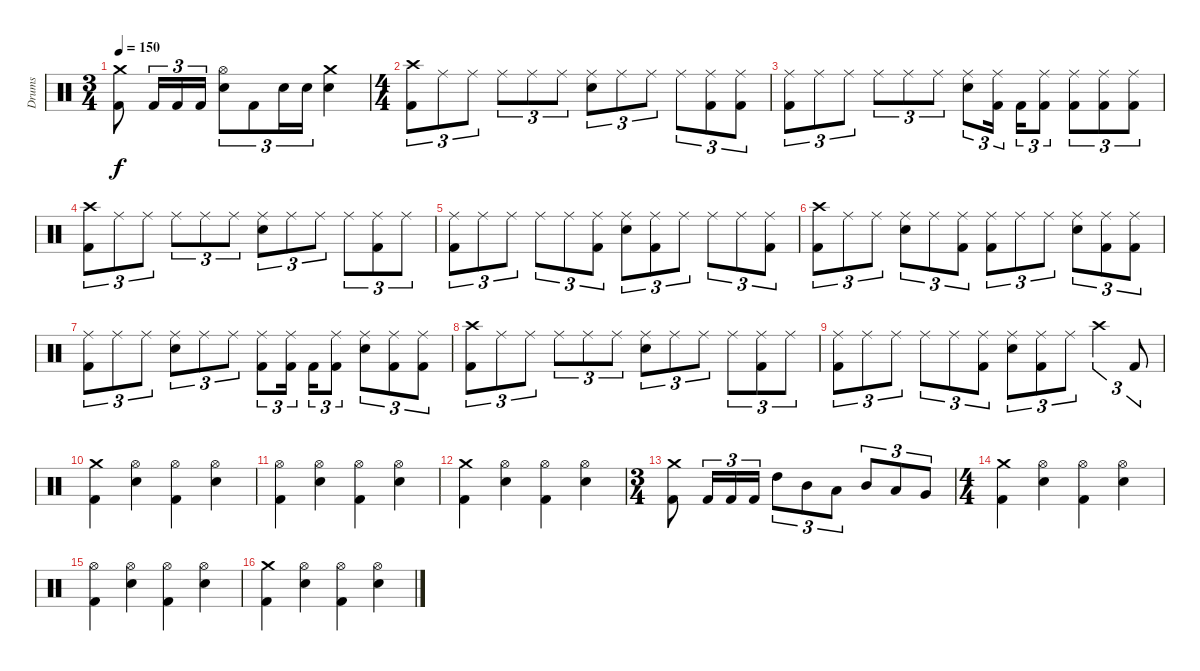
\track ("Drums" "Drums") {instrument percussion}
\staff {score}
\articulation defaults
\ts (3 4)
\tempo 150
\clef neutral
\ks c
("Kick (hit) 2" "Crash medium (hit)").8{dy f} "Kick (hit) 2".16{tu (3 2)} "Kick (hit) 2".16{tu (3 2)} "Kick (hit) 2".16{tu (3 2)} ("Electric Snare (hit)" "Hi-Hat (open)").8{tu (3 2)} "Kick (hit) 2".8{tu (3 2)} "Electric Snare (hit)".16{tu (3 2)} "Electric Snare (hit)".16{tu (3 2)} ("Electric Snare (hit)" "Crash medium (hit)").4 |
\ts (4 4)
("Kick (hit) 2" "Crash high (hit)").8{tu (3 2)} "Ride (middle)".8{tu (3 2)} "Ride (middle)".8{tu (3 2)} "Ride (middle)".8{tu (3 2)} "Ride (middle)".8{tu (3 2)} "Ride (middle)".8{tu (3 2)} ("Electric Snare (hit)" "Ride (middle)").8{tu (3 2)} "Ride (middle)".8{tu (3 2)} "Ride (middle)".8{tu (3 2)} "Ride (middle)".8{tu (3 2)} ("Kick (hit) 2" "Ride (middle)").8{tu (3 2)} ("Kick (hit) 2" "Ride (middle)").8{tu (3 2)} |
("Kick (hit) 2" "Ride (middle)").8{tu (3 2)} "Ride (middle)".8{tu (3 2)} "Ride (middle)".8{tu (3 2)} "Ride (middle)".8{tu (3 2)} "Ride (middle)".8{tu (3 2)} "Ride (middle)".8{tu (3 2)} ("Electric Snare (hit)" "Ride (middle)").8{tu (3 2)} ("Kick (hit) 2" "Ride (middle)").16{tu (3 2)} "Kick (hit) 2".16{tu (3 2)} ("Kick (hit) 2" "Ride (middle)").8{tu (3 2)} ("Kick (hit) 2" "Ride (middle)").8{tu (3 2)} ("Kick (hit) 2" "Ride (middle)").8{tu (3 2)} ("Kick (hit) 2" "Ride (middle)").8{tu (3 2)} |
("Kick (hit) 2" "Crash high (hit)").8{tu (3 2)} "Ride (middle)".8{tu (3 2)} "Ride (middle)".8{tu (3 2)} "Ride (middle)".8{tu (3 2)} "Ride (middle)".8{tu (3 2)} "Ride (middle)".8{tu (3 2)} ("Electric Snare (hit)" "Ride (middle)").8{tu (3 2)} "Ride (middle)".8{tu (3 2)} "Ride (middle)".8{tu (3 2)} "Ride (middle)".8{tu (3 2)} ("Kick (hit) 2" "Ride (middle)").8{tu (3 2)} "Ride (middle)".8{tu (3 2)} |
("Kick (hit) 2" "Ride (middle)").8{tu (3 2)} "Ride (middle)".8{tu (3 2)} "Ride (middle)".8{tu (3 2)} "Ride (middle)".8{tu (3 2)} "Ride (middle)".8{tu (3 2)} ("Kick (hit) 2" "Ride (middle)").8{tu (3 2)} ("Electric Snare (hit)" "Ride (middle)").8{tu (3 2)} ("Kick (hit) 2" "Ride (middle)").8{tu (3 2)} "Ride (middle)".8{tu (3 2)} "Ride (middle)".8{tu (3 2)} "Ride (middle)".8{tu (3 2)} ("Kick (hit) 2" "Ride (middle)").8{tu (3 2)} |
("Kick (hit) 2" "Crash high (hit)").8{tu (3 2)} "Ride (middle)".8{tu (3 2)} "Ride (middle)".8{tu (3 2)} ("Electric Snare (hit)" "Ride (middle)").8{tu (3 2)} "Ride (middle)".8{tu (3 2)} ("Kick (hit) 2" "Ride (middle)").8{tu (3 2)} ("Kick (hit) 2" "Ride (middle)").8{tu (3 2)} "Ride (middle)".8{tu (3 2)} "Ride (middle)".8{tu (3 2)} ("Electric Snare (hit)" "Ride (middle)").8{tu (3 2)} ("Kick (hit) 2" "Ride (middle)").8{tu (3 2)} ("Kick (hit) 2" "Ride (middle)").8{tu (3 2)} |
("Kick (hit) 2" "Ride (middle)").8{tu (3 2)} "Ride (middle)".8{tu (3 2)} "Ride (middle)".8{tu (3 2)} ("Electric Snare (hit)" "Ride (middle)").8{tu (3 2)} "Ride (middle)".8{tu (3 2)} "Ride (middle)".8{tu (3 2)} ("Kick (hit) 2" "Ride (middle)").8{tu (3 2)} ("Kick (hit) 2" "Ride (middle)").16{tu (3 2)} "Kick (hit) 2".16{tu (3 2)} ("Kick (hit) 2" "Ride (middle)").8{tu (3 2)} ("Electric Snare (hit)" "Ride (middle)").8{tu (3 2)} ("Kick (hit) 2" "Ride (middle)").8{tu (3 2)} ("Kick (hit) 2" "Ride (middle)").8{tu (3 2)} |
("Kick (hit) 2" "Crash high (hit)").8{tu (3 2)} "Ride (middle)".8{tu (3 2)} "Ride (middle)".8{tu (3 2)} "Ride (middle)".8{tu (3 2)} "Ride (middle)".8{tu (3 2)} "Ride (middle)".8{tu (3 2)} ("Electric Snare (hit)" "Ride (middle)").8{tu (3 2)} "Ride (middle)".8{tu (3 2)} "Ride (middle)".8{tu (3 2)} "Ride (middle)".8{tu (3 2)} ("Kick (hit) 2" "Ride (middle)").8{tu (3 2)} "Ride (middle)".8{tu (3 2)} |
("Kick (hit) 2" "Ride (middle)").8{tu (3 2)} "Ride (middle)".8{tu (3 2)} "Ride (middle)".8{tu (3 2)} "Ride (middle)".8{tu (3 2)} "Ride (middle)".8{tu (3 2)} ("Kick (hit) 2" "Ride (middle)").8{tu (3 2)} ("Electric Snare (hit)" "Ride (middle)").8{tu (3 2)} ("Kick (hit) 2" "Ride (middle)").8{tu (3 2)} "Ride (middle)".8{tu (3 2)} "Crash high (hit)".4{tu (3 2)} "Kick (hit) 2".8{tu (3 2)} |
("Kick (hit) 2" "Crash medium (hit)").4 ("Electric Snare (hit)" "Hi-Hat (open)").4 ("Kick (hit) 2" "Hi-Hat (open)").4 ("Electric Snare (hit)" "Hi-Hat (open)").4 |
("Kick (hit) 2" "Hi-Hat (open)").4 ("Electric Snare (hit)" "Hi-Hat (open)").4 ("Kick (hit) 2" "Hi-Hat (open)").4 ("Electric Snare (hit)" "Hi-Hat (open)").4 |
("Kick (hit) 2" "Crash medium (hit)").4 ("Electric Snare (hit)" "Hi-Hat (open)").4 ("Kick (hit) 2" "Hi-Hat (open)").4 ("Electric Snare (hit)" "Hi-Hat (open)").4 |
\ts (3 4)
("Kick (hit) 2" "Crash medium (hit)").8 "Kick (hit) 2".16{tu (3 2)} "Kick (hit) 2".16{tu (3 2)} "Kick (hit) 2".16{tu (3 2)} "High Tom (hit)".8{tu (3 2)} "Mid Tom (hit)".8{tu (3 2)} "Low Tom (hit)".8{tu (3 2)} "Mid Tom (hit)".8{tu (3 2)} "Low Tom (hit)".8{tu (3 2)} "Very Low Tom (hit)".8{tu (3 2)} |
\ts (4 4)
("Kick (hit) 2" "Crash medium (hit)").4 ("Electric Snare (hit)" "Hi-Hat (open)").4 ("Kick (hit) 2" "Hi-Hat (open)").4 ("Electric Snare (hit)" "Hi-Hat (open)").4 |
("Kick (hit) 2" "Hi-Hat (open)").4 ("Electric Snare (hit)" "Hi-Hat (open)").4 ("Kick (hit) 2" "Hi-Hat (open)").4 ("Electric Snare (hit)" "Hi-Hat (open)").4 |
("Kick (hit) 2" "Crash medium (hit)").4 ("Electric Snare (hit)" "Hi-Hat (open)").4 ("Kick (hit) 2" "Hi-Hat (open)").4 ("Electric Snare (hit)" "Hi-Hat (open)").4
